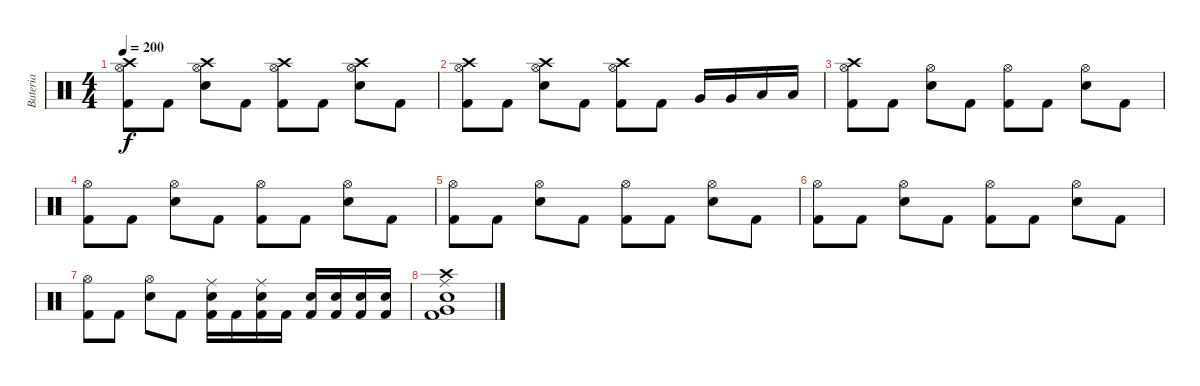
\track ("Bateria" "Bateria") {instrument percussion}
\staff {score}
\articulation defaults
\ts (4 4)
\tempo 200
\clef neutral
\ks c
("Kick (hit) 2" "Hi-Hat (open)" "Crash high (hit)").8{dy f} "Kick (hit) 2".8 ("Electric Snare (hit)" "Hi-Hat (open)" "Crash high (hit)").8 "Kick (hit) 2".8 ("Kick (hit) 2" "Hi-Hat (open)" "Crash high (hit)").8 "Kick (hit) 2".8 ("Electric Snare (hit)" "Hi-Hat (open)" "Crash high (hit)").8 "Kick (hit) 2".8 |
("Kick (hit) 2" "Hi-Hat (open)" "Crash high (hit)").8 "Kick (hit) 2".8 ("Electric Snare (hit)" "Hi-Hat (open)" "Crash high (hit)").8 "Kick (hit) 2".8 ("Kick (hit) 2" "Hi-Hat (open)" "Crash high (hit)").8 "Kick (hit) 2".8 "Very Low Tom (hit)".16 "Very Low Tom (hit)".16 "Low Floor Tom (hit)".16 "Low Floor Tom (hit)".16 |
("Kick (hit) 2" "Hi-Hat (open)" "Crash high (hit)").8 "Kick (hit) 2".8 ("Electric Snare (hit)" "Hi-Hat (open)").8 "Kick (hit) 2".8 ("Kick (hit) 2" "Hi-Hat (open)").8 "Kick (hit) 2".8 ("Electric Snare (hit)" "Hi-Hat (open)").8 "Kick (hit) 2".8 |
("Kick (hit) 2" "Hi-Hat (open)").8 "Kick (hit) 2".8 ("Electric Snare (hit)" "Hi-Hat (open)").8 "Kick (hit) 2".8 ("Kick (hit) 2" "Hi-Hat (open)").8 "Kick (hit) 2".8 ("Electric Snare (hit)" "Hi-Hat (open)").8 "Kick (hit) 2".8 |
("Kick (hit) 2" "Hi-Hat (open)").8 "Kick (hit) 2".8 ("Electric Snare (hit)" "Hi-Hat (open)").8 "Kick (hit) 2".8 ("Kick (hit) 2" "Hi-Hat (open)").8 "Kick (hit) 2".8 ("Electric Snare (hit)" "Hi-Hat (open)").8 "Kick (hit) 2".8 |
("Kick (hit) 2" "Hi-Hat (open)").8 "Kick (hit) 2".8 ("Electric Snare (hit)" "Hi-Hat (open)").8 "Kick (hit) 2".8 ("Kick (hit) 2" "Hi-Hat (open)").8 "Kick (hit) 2".8 ("Electric Snare (hit)" "Hi-Hat (open)").8 "Kick (hit) 2".8 |
("Kick (hit) 2" "Hi-Hat (open)").8 "Kick (hit) 2".8 ("Electric Snare (hit)" "Hi-Hat (open)").8 "Kick (hit) 2".8 ("Kick (hit) 2" "Electric Snare (hit)" "Ride (middle)").16 "Kick (hit) 2".16 ("Kick (hit) 2" "Electric Snare (hit)" "Ride (middle)").16 "Kick (hit) 2".16 ("Kick (hit) 2" "Electric Snare (hit)").16 ("Kick (hit) 2" "Electric Snare (hit)").16 ("Kick (hit) 2" "Electric Snare (hit)").16 ("Kick (hit) 2" "Electric Snare (hit)").16 |
("Very Low Tom (hit)" "Crash high (hit)" "Ride (middle)" "Electric Snare (hit)" "Kick (hit) 2").1
